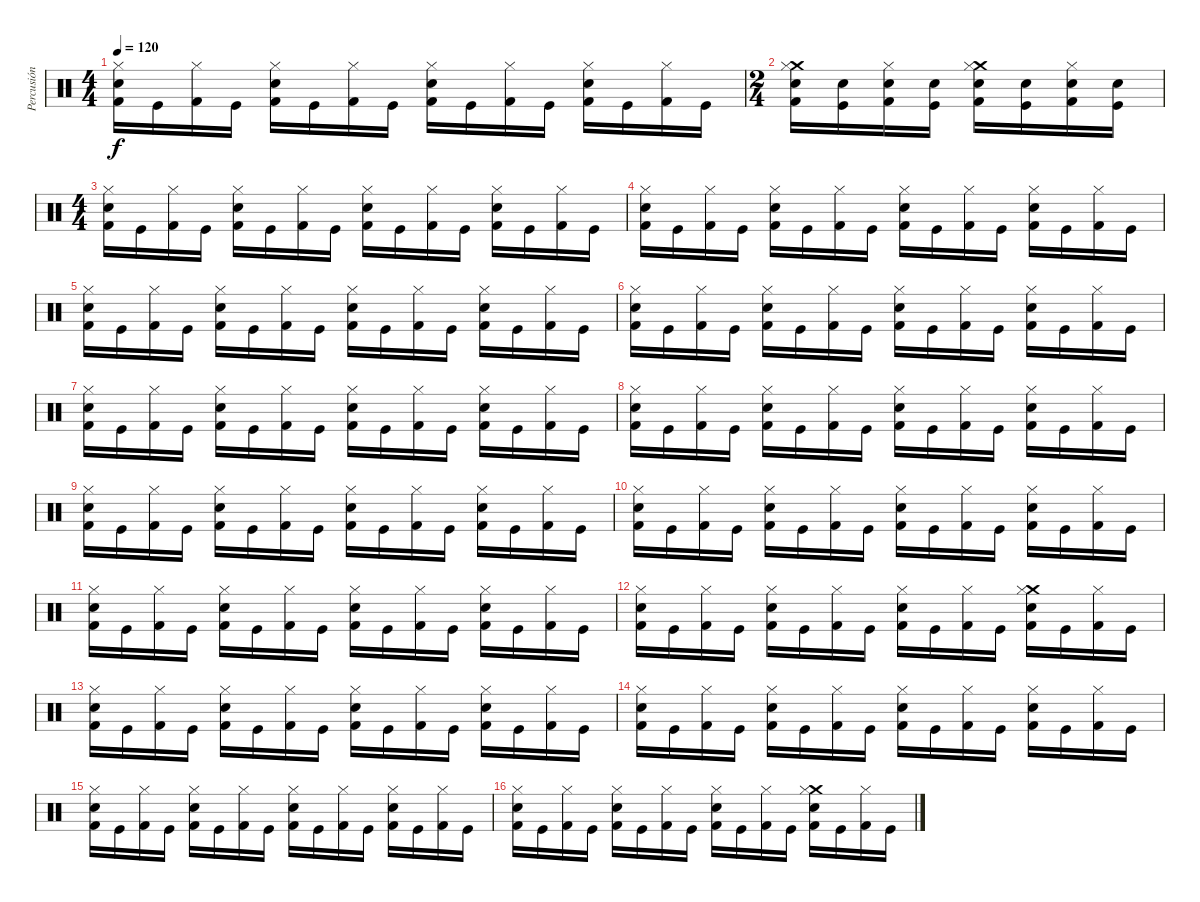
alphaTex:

\track ("Percusión" "Percusión") {instrument percussion}
\staff {score}
\articulation defaults
\ts (4 4)
\tempo 120
\clef neutral
\ks c
("Hi-Hat (closed)" "Snare (hit) 2" "Kick (hit) 2").16{dy f} "Kick (hit)".16 ("Hi-Hat (closed)" "Kick (hit) 2").16 "Kick (hit)".16 ("Hi-Hat (closed)" "Snare (hit) 2" "Kick (hit) 2").16 "Kick (hit)".16 ("Hi-Hat (closed)" "Kick (hit) 2").16 "Kick (hit)".16 ("Hi-Hat (closed)" "Snare (hit) 2" "Kick (hit) 2").16 "Kick (hit)".16 ("Hi-Hat (closed)" "Kick (hit) 2").16 "Kick (hit)".16 ("Hi-Hat (closed)" "Snare (hit) 2" "Kick (hit) 2").16 "Kick (hit)".16 ("Hi-Hat (closed)" "Kick (hit) 2").16 "Kick (hit)".16 |
\ts (2 4)
("Crash medium (hit)" "Hi-Hat (closed)" "Snare (hit) 2" "Kick (hit) 2").16 ("Snare (hit) 2" "Kick (hit)").16 ("Hi-Hat (closed)" "Snare (hit) 2" "Kick (hit) 2").16 ("Snare (hit) 2" "Kick (hit)").16 ("Crash medium (hit)" "Hi-Hat (closed)" "Snare (hit) 2" "Kick (hit) 2").16 ("Snare (hit) 2" "Kick (hit)").16 ("Hi-Hat (closed)" "Snare (hit) 2" "Kick (hit) 2").16 ("Snare (hit) 2" "Kick (hit)").16 |
\ts (4 4)
("Hi-Hat (closed)" "Snare (hit) 2" "Kick (hit) 2").16 "Kick (hit)".16 ("Hi-Hat (closed)" "Kick (hit) 2").16 "Kick (hit)".16 ("Hi-Hat (closed)" "Snare (hit) 2" "Kick (hit) 2").16 "Kick (hit)".16 ("Hi-Hat (closed)" "Kick (hit) 2").16 "Kick (hit)".16 ("Hi-Hat (closed)" "Snare (hit) 2" "Kick (hit) 2").16 "Kick (hit)".16 ("Hi-Hat (closed)" "Kick (hit) 2").16 "Kick (hit)".16 ("Hi-Hat (closed)" "Snare (hit) 2" "Kick (hit) 2").16 "Kick (hit)".16 ("Hi-Hat (closed)" "Kick (hit) 2").16 "Kick (hit)".16 |
("Hi-Hat (closed)" "Snare (hit) 2" "Kick (hit) 2").16 "Kick (hit)".16 ("Hi-Hat (closed)" "Kick (hit) 2").16 "Kick (hit)".16 ("Hi-Hat (closed)" "Snare (hit) 2" "Kick (hit) 2").16 "Kick (hit)".16 ("Hi-Hat (closed)" "Kick (hit) 2").16 "Kick (hit)".16 ("Hi-Hat (closed)" "Snare (hit) 2" "Kick (hit) 2").16 "Kick (hit)".16 ("Hi-Hat (closed)" "Kick (hit) 2").16 "Kick (hit)".16 ("Hi-Hat (closed)" "Snare (hit) 2" "Kick (hit) 2").16 "Kick (hit)".16 ("Hi-Hat (closed)" "Kick (hit) 2").16 "Kick (hit)".16 |
("Hi-Hat (closed)" "Snare (hit) 2" "Kick (hit) 2").16 "Kick (hit)".16 ("Hi-Hat (closed)" "Kick (hit) 2").16 "Kick (hit)".16 ("Hi-Hat (closed)" "Snare (hit) 2" "Kick (hit) 2").16 "Kick (hit)".16 ("Hi-Hat (closed)" "Kick (hit) 2").16 "Kick (hit)".16 ("Hi-Hat (closed)" "Snare (hit) 2" "Kick (hit) 2").16 "Kick (hit)".16 ("Hi-Hat (closed)" "Kick (hit) 2").16 "Kick (hit)".16 ("Hi-Hat (closed)" "Snare (hit) 2" "Kick (hit) 2").16 "Kick (hit)".16 ("Hi-Hat (closed)" "Kick (hit) 2").16 "Kick (hit)".16 |
("Hi-Hat (closed)" "Snare (hit) 2" "Kick (hit) 2").16 "Kick (hit)".16 ("Hi-Hat (closed)" "Kick (hit) 2").16 "Kick (hit)".16 ("Hi-Hat (closed)" "Snare (hit) 2" "Kick (hit) 2").16 "Kick (hit)".16 ("Hi-Hat (closed)" "Kick (hit) 2").16 "Kick (hit)".16 ("Hi-Hat (closed)" "Snare (hit) 2" "Kick (hit) 2").16 "Kick (hit)".16 ("Hi-Hat (closed)" "Kick (hit) 2").16 "Kick (hit)".16 ("Hi-Hat (closed)" "Snare (hit) 2" "Kick (hit) 2").16 "Kick (hit)".16 ("Hi-Hat (closed)" "Kick (hit) 2").16 "Kick (hit)".16 |
("Hi-Hat (closed)" "Snare (hit) 2" "Kick (hit) 2").16 "Kick (hit)".16 ("Hi-Hat (closed)" "Kick (hit) 2").16 "Kick (hit)".16 ("Hi-Hat (closed)" "Snare (hit) 2" "Kick (hit) 2").16 "Kick (hit)".16 ("Hi-Hat (closed)" "Kick (hit) 2").16 "Kick (hit)".16 ("Hi-Hat (closed)" "Snare (hit) 2" "Kick (hit) 2").16 "Kick (hit)".16 ("Hi-Hat (closed)" "Kick (hit) 2").16 "Kick (hit)".16 ("Hi-Hat (closed)" "Snare (hit) 2" "Kick (hit) 2").16 "Kick (hit)".16 ("Hi-Hat (closed)" "Kick (hit) 2").16 "Kick (hit)".16 |
("Hi-Hat (closed)" "Snare (hit) 2" "Kick (hit) 2").16 "Kick (hit)".16 ("Hi-Hat (closed)" "Kick (hit) 2").16 "Kick (hit)".16 ("Hi-Hat (closed)" "Snare (hit) 2" "Kick (hit) 2").16 "Kick (hit)".16 ("Hi-Hat (closed)" "Kick (hit) 2").16 "Kick (hit)".16 ("Hi-Hat (closed)" "Snare (hit) 2" "Kick (hit) 2").16 "Kick (hit)".16 ("Hi-Hat (closed)" "Kick (hit) 2").16 "Kick (hit)".16 ("Hi-Hat (closed)" "Snare (hit) 2" "Kick (hit) 2").16 "Kick (hit)".16 ("Hi-Hat (closed)" "Kick (hit) 2").16 "Kick (hit)".16 |
("Hi-Hat (closed)" "Snare (hit) 2" "Kick (hit) 2").16 "Kick (hit)".16 ("Hi-Hat (closed)" "Kick (hit) 2").16 "Kick (hit)".16 ("Hi-Hat (closed)" "Snare (hit) 2" "Kick (hit) 2").16 "Kick (hit)".16 ("Hi-Hat (closed)" "Kick (hit) 2").16 "Kick (hit)".16 ("Hi-Hat (closed)" "Snare (hit) 2" "Kick (hit) 2").16 "Kick (hit)".16 ("Hi-Hat (closed)" "Kick (hit) 2").16 "Kick (hit)".16 ("Hi-Hat (closed)" "Snare (hit) 2" "Kick (hit) 2").16 "Kick (hit)".16 ("Hi-Hat (closed)" "Kick (hit) 2").16 "Kick (hit)".16 |
("Hi-Hat (closed)" "Snare (hit) 2" "Kick (hit) 2").16 "Kick (hit)".16 ("Hi-Hat (closed)" "Kick (hit) 2").16 "Kick (hit)".16 ("Hi-Hat (closed)" "Snare (hit) 2" "Kick (hit) 2").16 "Kick (hit)".16 ("Hi-Hat (closed)" "Kick (hit) 2").16 "Kick (hit)".16 ("Hi-Hat (closed)" "Snare (hit) 2" "Kick (hit) 2").16 "Kick (hit)".16 ("Hi-Hat (closed)" "Kick (hit) 2").16 "Kick (hit)".16 ("Hi-Hat (closed)" "Snare (hit) 2" "Kick (hit) 2").16 "Kick (hit)".16 ("Hi-Hat (closed)" "Kick (hit) 2").16 "Kick (hit)".16 |
("Hi-Hat (closed)" "Snare (hit) 2" "Kick (hit) 2").16 "Kick (hit)".16 ("Hi-Hat (closed)" "Kick (hit) 2").16 "Kick (hit)".16 ("Hi-Hat (closed)" "Snare (hit) 2" "Kick (hit) 2").16 "Kick (hit)".16 ("Hi-Hat (closed)" "Kick (hit) 2").16 "Kick (hit)".16 ("Hi-Hat (closed)" "Snare (hit) 2" "Kick (hit) 2").16 "Kick (hit)".16 ("Hi-Hat (closed)" "Kick (hit) 2").16 "Kick (hit)".16 ("Hi-Hat (closed)" "Snare (hit) 2" "Kick (hit) 2").16 "Kick (hit)".16 ("Hi-Hat (closed)" "Kick (hit) 2").16 "Kick (hit)".16 |
("Hi-Hat (closed)" "Snare (hit) 2" "Kick (hit) 2").16 "Kick (hit)".16 ("Hi-Hat (closed)" "Kick (hit) 2").16 "Kick (hit)".16 ("Hi-Hat (closed)" "Snare (hit) 2" "Kick (hit) 2").16 "Kick (hit)".16 ("Hi-Hat (closed)" "Kick (hit) 2").16 "Kick (hit)".16 ("Hi-Hat (closed)" "Snare (hit) 2" "Kick (hit) 2").16 "Kick (hit)".16 ("Hi-Hat (closed)" "Kick (hit) 2").16 "Kick (hit)".16 ("Crash medium (hit)" "Hi-Hat (closed)" "Snare (hit) 2" "Kick (hit) 2").16 "Kick (hit)".16 ("Hi-Hat (closed)" "Kick (hit) 2").16 "Kick (hit)".16 |
("Hi-Hat (closed)" "Snare (hit) 2" "Kick (hit) 2").16 "Kick (hit)".16 ("Hi-Hat (closed)" "Kick (hit) 2").16 "Kick (hit)".16 ("Hi-Hat (closed)" "Snare (hit) 2" "Kick (hit) 2").16 "Kick (hit)".16 ("Hi-Hat (closed)" "Kick (hit) 2").16 "Kick (hit)".16 ("Hi-Hat (closed)" "Snare (hit) 2" "Kick (hit) 2").16 "Kick (hit)".16 ("Hi-Hat (closed)" "Kick (hit) 2").16 "Kick (hit)".16 ("Hi-Hat (closed)" "Snare (hit) 2" "Kick (hit) 2").16 "Kick (hit)".16 ("Hi-Hat (closed)" "Kick (hit) 2").16 "Kick (hit)".16 |
("Hi-Hat (closed)" "Snare (hit) 2" "Kick (hit) 2").16 "Kick (hit)".16 ("Hi-Hat (closed)" "Kick (hit) 2").16 "Kick (hit)".16 ("Hi-Hat (closed)" "Snare (hit) 2" "Kick (hit) 2").16 "Kick (hit)".16 ("Hi-Hat (closed)" "Kick (hit) 2").16 "Kick (hit)".16 ("Hi-Hat (closed)" "Snare (hit) 2" "Kick (hit) 2").16 "Kick (hit)".16 ("Hi-Hat (closed)" "Kick (hit) 2").16 "Kick (hit)".16 ("Hi-Hat (closed)" "Snare (hit) 2" "Kick (hit) 2").16 "Kick (hit)".16 ("Hi-Hat (closed)" "Kick (hit) 2").16 "Kick (hit)".16 |
("Hi-Hat (closed)" "Snare (hit) 2" "Kick (hit) 2").16 "Kick (hit)".16 ("Hi-Hat (closed)" "Kick (hit) 2").16 "Kick (hit)".16 ("Hi-Hat (closed)" "Snare (hit) 2" "Kick (hit) 2").16 "Kick (hit)".16 ("Hi-Hat (closed)" "Kick (hit) 2").16 "Kick (hit)".16 ("Hi-Hat (closed)" "Snare (hit) 2" "Kick (hit) 2").16 "Kick (hit)".16 ("Hi-Hat (closed)" "Kick (hit) 2").16 "Kick (hit)".16 ("Hi-Hat (closed)" "Snare (hit) 2" "Kick (hit) 2").16 "Kick (hit)".16 ("Hi-Hat (closed)" "Kick (hit) 2").16 "Kick (hit)".16 |
("Hi-Hat (closed)" "Snare (hit) 2" "Kick (hit) 2").16 "Kick (hit)".16 ("Hi-Hat (closed)" "Kick (hit) 2").16 "Kick (hit)".16 ("Hi-Hat (closed)" "Snare (hit) 2" "Kick (hit) 2").16 "Kick (hit)".16 ("Hi-Hat (closed)" "Kick (hit) 2").16 "Kick (hit)".16 ("Hi-Hat (closed)" "Snare (hit) 2" "Kick (hit) 2").16 "Kick (hit)".16 ("Hi-Hat (closed)" "Kick (hit) 2").16 "Kick (hit)".16 ("Crash medium (hit)" "Hi-Hat (closed)" "Snare (hit) 2" "Kick (hit) 2").16 "Kick (hit)".16 ("Hi-Hat (closed)" "Kick (hit) 2").16 "Kick (hit)".16
